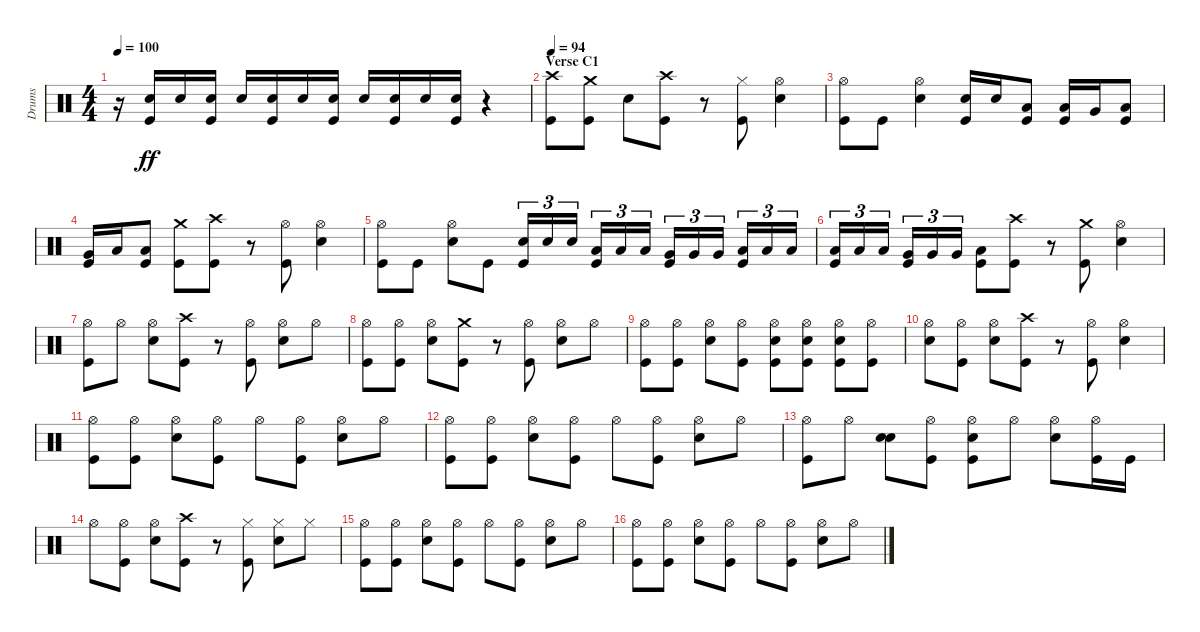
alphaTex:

\track ("Drums" "Drums") {instrument percussion}
\staff {score}
\articulation defaults
\ts (4 4)
\tempo 100
\clef neutral
\ks c
r.16{dy ff} ("Electric Snare (hit)" "Kick (hit)").16 "Electric Snare (hit)".16 ("Electric Snare (hit)" "Kick (hit)").16 "Electric Snare (hit)".16 ("Electric Snare (hit)" "Kick (hit)").16 "Electric Snare (hit)".16 ("Electric Snare (hit)" "Kick (hit)").16 "Electric Snare (hit)".16 ("Electric Snare (hit)" "Kick (hit)").16 "Electric Snare (hit)".16 ("Electric Snare (hit)" "Kick (hit)").16 r.4 |
\section ("" "Verse C1")
\tempo 94
("Crash high (hit)" "Kick (hit)").8 ("Crash medium (hit)" "Kick (hit)").8 "Electric Snare (hit)".8 ("Crash high (hit)" "Kick (hit)").8 r.8 ("Hi-Hat (closed)" "Kick (hit)").8 ("Hi-Hat (open)" "Electric Snare (hit)").4 |
("Hi-Hat (open)" "Kick (hit)").8 "Kick (hit)".8 ("Hi-Hat (open)" "Electric Snare (hit)").4 ("Electric Snare (hit)" "Kick (hit)").16 "Electric Snare (hit)".16 ("Low Tom (hit)" "Kick (hit)").8 ("Low Tom (hit)" "Kick (hit)").16 "Very Low Tom (hit)".16 ("Low Floor Tom (hit)" "Kick (hit)").8 |
("Very Low Tom (hit)" "Kick (hit)").16 "Low Floor Tom (hit)".16 ("Low Floor Tom (hit)" "Kick (hit)").8 ("Crash medium (hit)" "Kick (hit)").8 ("Crash high (hit)" "Kick (hit)").8 r.8 ("Hi-Hat (open)" "Kick (hit)").8 ("Hi-Hat (open)" "Electric Snare (hit)").4 |
("Hi-Hat (open)" "Kick (hit)").8 "Kick (hit)".8 ("Hi-Hat (open)" "Electric Snare (hit)").8 "Kick (hit)".8 ("Electric Snare (hit)" "Kick (hit)").16{tu (3 2)} "Electric Snare (hit)".16{tu (3 2)} "Electric Snare (hit)".16{tu (3 2)} ("Low Tom (hit)" "Kick (hit)").16{tu (3 2)} "Low Tom (hit)".16{tu (3 2)} "Low Tom (hit)".16{tu (3 2)} ("Very Low Tom (hit)" "Kick (hit)").16{tu (3 2)} "Very Low Tom (hit)".16{tu (3 2)} "Very Low Tom (hit)".16{tu (3 2)} ("Low Floor Tom (hit)" "Kick (hit)").16{tu (3 2)} "Low Floor Tom (hit)".16{tu (3 2)} "Low Floor Tom (hit)".16{tu (3 2)} |
("Low Tom (hit)" "Kick (hit)").16{tu (3 2)} "Low Tom (hit)".16{tu (3 2)} "Low Tom (hit)".16{tu (3 2)} ("Very Low Tom (hit)" "Kick (hit)").16{tu (3 2)} "Very Low Tom (hit)".16{tu (3 2)} "Very Low Tom (hit)".16{tu (3 2)} ("Low Floor Tom (hit)" "Kick (hit)").8 ("Crash high (hit)" "Kick (hit)").8 r.8 ("Crash medium (hit)" "Kick (hit)").8 ("Hi-Hat (open)" "Electric Snare (hit)").4 |
("Hi-Hat (open)" "Kick (hit)").8 "Hi-Hat (open)".8 ("Hi-Hat (open)" "Electric Snare (hit)").8 ("Crash high (hit)" "Kick (hit)").8 r.8 ("Hi-Hat (open)" "Kick (hit)").8 ("Hi-Hat (open)" "Electric Snare (hit)").8 "Hi-Hat (open)".8 |
("Hi-Hat (open)" "Kick (hit)").8 ("Hi-Hat (open)" "Kick (hit)").8 ("Hi-Hat (open)" "Electric Snare (hit)").8 ("Crash medium (hit)" "Kick (hit)").8 r.8 ("Hi-Hat (open)" "Kick (hit)").8 ("Hi-Hat (open)" "Electric Snare (hit)").8 "Hi-Hat (open)".8 |
("Hi-Hat (open)" "Kick (hit)").8 ("Hi-Hat (open)" "Kick (hit)").8 ("Hi-Hat (open)" "Electric Snare (hit)").8 ("Hi-Hat (open)" "Kick (hit)").8 ("Hi-Hat (open)" "Electric Snare (hit)" "Kick (hit)").8 ("Hi-Hat (open)" "Electric Snare (hit)" "Kick (hit)").8 ("Hi-Hat (open)" "Electric Snare (hit)" "Kick (hit)").8 ("Hi-Hat (open)" "Kick (hit)").8 |
("Hi-Hat (open)" "Electric Snare (hit)").8 ("Hi-Hat (open)" "Kick (hit)").8 ("Hi-Hat (open)" "Electric Snare (hit)").8 ("Crash high (hit)" "Kick (hit)").8 r.8 ("Hi-Hat (open)" "Kick (hit)").8 ("Hi-Hat (open)" "Electric Snare (hit)").4 |
("Hi-Hat (open)" "Kick (hit)").8 ("Hi-Hat (open)" "Kick (hit)").8 ("Hi-Hat (open)" "Electric Snare (hit)").8 ("Hi-Hat (open)" "Kick (hit)").8 "Hi-Hat (open)".8 ("Hi-Hat (open)" "Kick (hit)").8 ("Hi-Hat (open)" "Electric Snare (hit)").8 "Hi-Hat (open)".8 |
("Hi-Hat (open)" "Kick (hit)").8 ("Hi-Hat (open)" "Kick (hit)").8 ("Hi-Hat (open)" "Electric Snare (hit)").8 ("Hi-Hat (open)" "Kick (hit)").8 "Hi-Hat (open)".8 ("Hi-Hat (open)" "Kick (hit)").8 ("Hi-Hat (open)" "Electric Snare (hit)").8 "Hi-Hat (open)".8 |
("Hi-Hat (open)" "Kick (hit)").8 "Hi-Hat (open)".8 ("Electric Snare (hit)" "Electric Snare (hit)").8 ("Hi-Hat (open)" "Kick (hit)").8 ("Hi-Hat (open)" "Electric Snare (hit)" "Kick (hit)").8 "Hi-Hat (open)".8 ("Hi-Hat (open)" "Electric Snare (hit)").8 ("Hi-Hat (open)" "Kick (hit)").16 "Kick (hit)".16 |
"Hi-Hat (open)".8 ("Hi-Hat (open)" "Kick (hit)").8 ("Hi-Hat (open)" "Electric Snare (hit)").8 ("Crash high (hit)" "Kick (hit)").8 r.8 ("Hi-Hat (closed)" "Kick (hit)").8 ("Hi-Hat (closed)" "Electric Snare (hit)").8 "Hi-Hat (closed)".8 |
("Hi-Hat (open)" "Kick (hit)").8 ("Hi-Hat (open)" "Kick (hit)").8 ("Hi-Hat (open)" "Electric Snare (hit)").8 ("Hi-Hat (open)" "Kick (hit)").8 "Hi-Hat (open)".8 ("Hi-Hat (open)" "Kick (hit)").8 ("Hi-Hat (open)" "Electric Snare (hit)").8 "Hi-Hat (open)".8 |
("Hi-Hat (open)" "Kick (hit)").8 ("Hi-Hat (open)" "Kick (hit)").8 ("Hi-Hat (open)" "Electric Snare (hit)").8 ("Hi-Hat (open)" "Kick (hit)").8 "Hi-Hat (open)".8 ("Hi-Hat (open)" "Kick (hit)").8 ("Hi-Hat (open)" "Electric Snare (hit)").8 "Hi-Hat (open)".8
